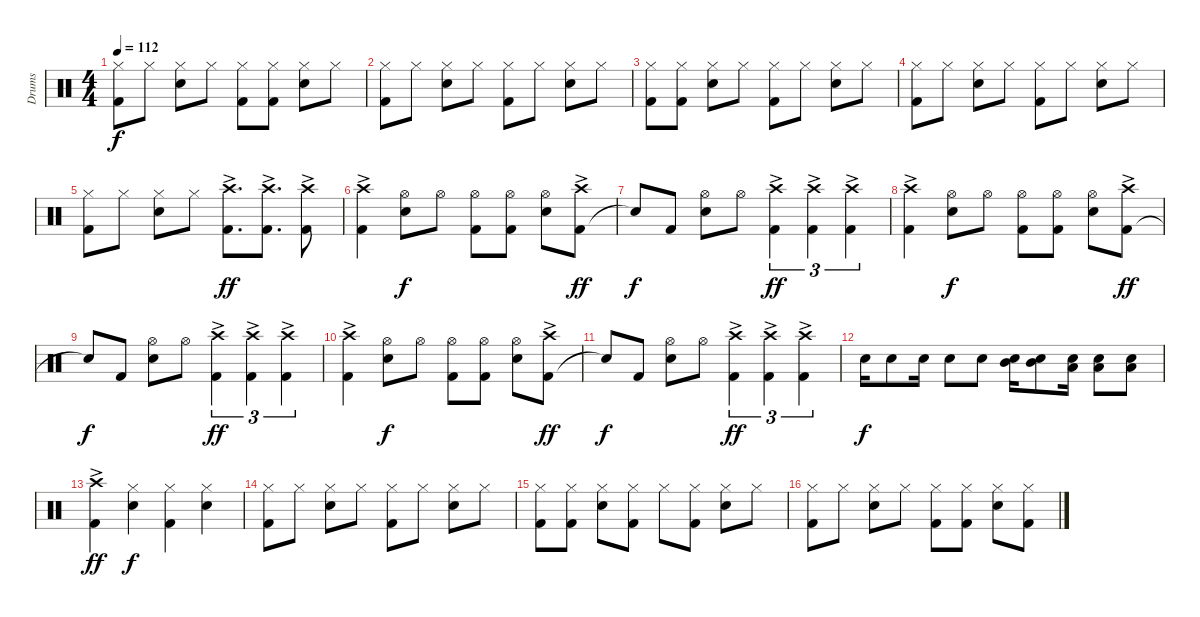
\track ("Drums" "Drums") {instrument percussion}
\staff {score}
\articulation defaults
\ts (4 4)
\tempo 112
\clef neutral
\ks c
("Kick (hit) 2" "Hi-Hat (closed)").8{dy f} "Hi-Hat (closed)".8 ("Snare (hit) 2" "Hi-Hat (closed)").8 "Hi-Hat (closed)".8 ("Kick (hit) 2" "Hi-Hat (closed)").8 ("Kick (hit) 2" "Hi-Hat (closed)").8 ("Snare (hit) 2" "Hi-Hat (closed)").8 "Hi-Hat (closed)".8 |
("Kick (hit) 2" "Hi-Hat (closed)").8 "Hi-Hat (closed)".8 ("Snare (hit) 2" "Hi-Hat (closed)").8 "Hi-Hat (closed)".8 ("Kick (hit) 2" "Hi-Hat (closed)").8 "Hi-Hat (closed)".8 ("Snare (hit) 2" "Hi-Hat (closed)").8 "Hi-Hat (closed)".8 |
("Kick (hit) 2" "Hi-Hat (closed)").8 ("Kick (hit) 2" "Hi-Hat (closed)").8 ("Snare (hit) 2" "Hi-Hat (closed)").8 "Hi-Hat (closed)".8 ("Kick (hit) 2" "Hi-Hat (closed)").8 "Hi-Hat (closed)".8 ("Snare (hit) 2" "Hi-Hat (closed)").8 "Hi-Hat (closed)".8 |
("Kick (hit) 2" "Hi-Hat (closed)").8 "Hi-Hat (closed)".8 ("Snare (hit) 2" "Hi-Hat (closed)").8 "Hi-Hat (closed)".8 ("Kick (hit) 2" "Hi-Hat (closed)").8 "Hi-Hat (closed)".8 ("Snare (hit) 2" "Hi-Hat (closed)").8 "Hi-Hat (closed)".8 |
("Kick (hit) 2" "Hi-Hat (closed)").8 "Hi-Hat (closed)".8 ("Snare (hit) 2" "Hi-Hat (closed)").8 "Hi-Hat (closed)".8 ("Kick (hit) 2" "Crash high (hit)"{ac}).8{d dy ff} ("Kick (hit) 2" "Crash high (hit)"{ac}).8{d} ("Kick (hit) 2" "Crash high (hit)"{ac}).8 |
("Kick (hit) 2" "Crash high (hit)"{ac}).4 ("Snare (hit) 2" "Hi-Hat (open)").8{dy f} "Hi-Hat (open)".8 ("Kick (hit) 2" "Hi-Hat (open)").8 ("Kick (hit) 2" "Hi-Hat (open)").8 ("Snare (hit) 2" "Hi-Hat (open)").8 ("Kick (hit) 2" "Crash high (hit)"{ac}).8{dy ff} |
"Snare (hit)"{t}.8{dy f} "Kick (hit) 2".8 ("Snare (hit) 2" "Hi-Hat (open)").8 "Hi-Hat (open)".8 ("Kick (hit) 2" "Crash high (hit)"{ac}).4{tu (3 2) dy ff} ("Kick (hit) 2" "Crash high (hit)"{ac}).4{tu (3 2)} ("Kick (hit) 2" "Crash high (hit)"{ac}).4{tu (3 2)} |
("Kick (hit) 2" "Crash high (hit)"{ac}).4 ("Snare (hit) 2" "Hi-Hat (open)").8{dy f} "Hi-Hat (open)".8 ("Kick (hit) 2" "Hi-Hat (open)").8 ("Kick (hit) 2" "Hi-Hat (open)").8 ("Snare (hit) 2" "Hi-Hat (open)").8 ("Kick (hit) 2" "Crash high (hit)"{ac}).8{dy ff} |
"Snare (hit)"{t}.8{dy f} "Kick (hit) 2".8 ("Snare (hit) 2" "Hi-Hat (open)").8 "Hi-Hat (open)".8 ("Kick (hit) 2" "Crash high (hit)"{ac}).4{tu (3 2) dy ff} ("Kick (hit) 2" "Crash high (hit)"{ac}).4{tu (3 2)} ("Kick (hit) 2" "Crash high (hit)"{ac}).4{tu (3 2)} |
("Kick (hit) 2" "Crash high (hit)"{ac}).4 ("Snare (hit) 2" "Hi-Hat (open)").8{dy f} "Hi-Hat (open)".8 ("Kick (hit) 2" "Hi-Hat (open)").8 ("Kick (hit) 2" "Hi-Hat (open)").8 ("Snare (hit) 2" "Hi-Hat (open)").8 ("Kick (hit) 2" "Crash high (hit)"{ac}).8{dy ff} |
"Snare (hit)"{t}.8{dy f} "Kick (hit) 2".8 ("Snare (hit) 2" "Hi-Hat (open)").8 "Hi-Hat (open)".8 ("Kick (hit) 2" "Crash high (hit)"{ac}).4{tu (3 2) dy ff} ("Kick (hit) 2" "Crash high (hit)"{ac}).4{tu (3 2)} ("Kick (hit) 2" "Crash high (hit)"{ac}).4{tu (3 2)} |
"Electric Snare (hit)".16{dy f} "Electric Snare (hit)".8 "Electric Snare (hit)".16 "Electric Snare (hit)".8 "Electric Snare (hit)".8 ("Electric Snare (hit)" "Mid Tom (hit)").16 ("Electric Snare (hit)" "Mid Tom (hit)").8 ("Electric Snare (hit)" "Low Tom (hit)").16 ("Electric Snare (hit)" "Low Tom (hit)").8 ("Electric Snare (hit)" "Low Tom (hit)").8 |
("Kick (hit) 2" "Crash high (hit)"{ac}).4{dy ff} ("Snare (hit) 2" "Hi-Hat (closed)").4{dy f} ("Kick (hit) 2" "Hi-Hat (closed)").4 ("Snare (hit) 2" "Hi-Hat (closed)").4 |
("Kick (hit) 2" "Hi-Hat (closed)").8 "Hi-Hat (closed)".8 ("Snare (hit) 2" "Hi-Hat (closed)").8 "Hi-Hat (closed)".8 ("Kick (hit) 2" "Hi-Hat (closed)").8 "Hi-Hat (closed)".8 ("Snare (hit) 2" "Hi-Hat (closed)").8 "Hi-Hat (closed)".8 |
("Kick (hit) 2" "Hi-Hat (closed)").8 ("Kick (hit) 2" "Hi-Hat (closed)").8 ("Snare (hit) 2" "Hi-Hat (closed)").8 ("Kick (hit) 2" "Hi-Hat (closed)").8 "Hi-Hat (closed)".8 ("Kick (hit) 2" "Hi-Hat (closed)").8 ("Snare (hit) 2" "Hi-Hat (closed)").8 "Hi-Hat (closed)".8 |
("Kick (hit) 2" "Hi-Hat (closed)").8 "Hi-Hat (closed)".8 ("Snare (hit) 2" "Hi-Hat (closed)").8 "Hi-Hat (closed)".8 ("Kick (hit) 2" "Hi-Hat (closed)").8 ("Kick (hit) 2" "Hi-Hat (closed)").8 ("Snare (hit) 2" "Hi-Hat (closed)").8 ("Kick (hit) 2" "Hi-Hat (closed)").8
